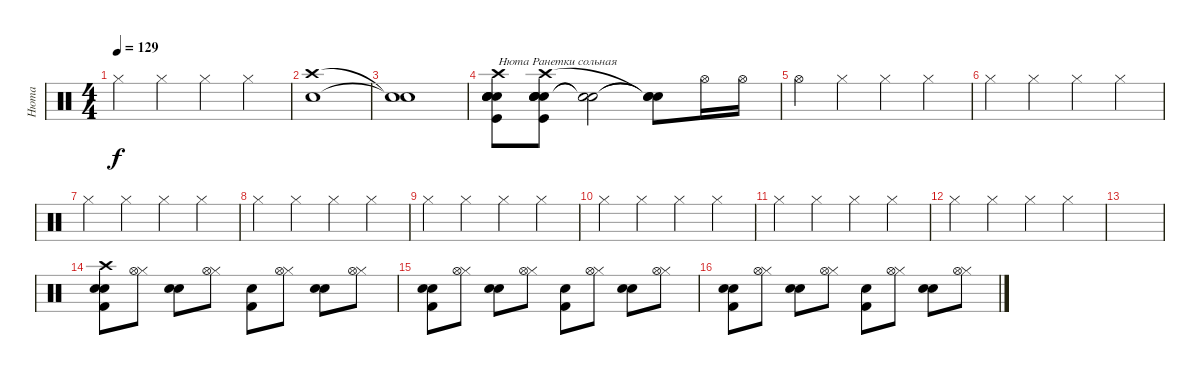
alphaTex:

\track ("Нюта" "Нюта") {instrument percussion}
\staff {score}
\articulation defaults
\ts (4 4)
\tempo 129
\clef neutral
\ks c "Hi-Hat (closed)".4{dy f} "Hi-Hat (closed)".4 "Hi-Hat (closed)".4 "Hi-Hat (closed)".4
|
("Crash high (hit)" "Electric Snare (hit)").1 |
("Snare (hit)"{t} "Snare (hit)"{t}).1 |
("Snare (hit)" "Snare (hit) 2" "Crash high (hit)" "Kick (hit)" "Snare (hit) 2" "Electric Snare (hit)").8{txt "Нюта Ранетки сольная"} ("Snare (hit)" "Snare (hit) 2" "Crash high (hit)" "Kick (hit)" "Snare (hit) 2" "Electric Snare (hit)").8 ("Snare (hit)"{t} "Snare (hit)"{t}).2 ("Snare (hit)"{t} "Snare (hit)"{t} "Snare (hit)"{t}).8 "Hi-Hat (open)".16 "Hi-Hat (open)".16 |
"Hi-Hat (open)".4 "Hi-Hat (closed)".4 "Hi-Hat (closed)".4 "Hi-Hat (closed)".4 |
"Hi-Hat (closed)".4 "Hi-Hat (closed)".4 "Hi-Hat (closed)".4 "Hi-Hat (closed)".4 |
"Hi-Hat (closed)".4 "Hi-Hat (closed)".4 "Hi-Hat (closed)".4 "Hi-Hat (closed)".4 |
"Hi-Hat (closed)".4 "Hi-Hat (closed)".4 "Hi-Hat (closed)".4 "Hi-Hat (closed)".4 |
"Hi-Hat (closed)".4 "Hi-Hat (closed)".4 "Hi-Hat (closed)".4 "Hi-Hat (closed)".4 |
"Hi-Hat (closed)".4 "Hi-Hat (closed)".4 "Hi-Hat (closed)".4 "Hi-Hat (closed)".4 |
"Hi-Hat (closed)".4 "Hi-Hat (closed)".4 "Hi-Hat (closed)".4 "Hi-Hat (closed)".4 |
"Hi-Hat (closed)".4 "Hi-Hat (closed)".4 "Hi-Hat (closed)".4 "Hi-Hat (closed)".4 |
|
("Snare (hit)" "Kick (hit) 2" "Snare (hit)" "Crash high (hit)").8 ("Hi-Hat (closed)" "Hi-Hat (open)").8 ("Snare (hit)" "Electric Snare (hit)").8 ("Hi-Hat (closed)" "Hi-Hat (open)").8 ("Snare (hit)" "Kick (hit) 2").8 ("Hi-Hat (closed)" "Hi-Hat (open)").8 ("Snare (hit)" "Electric Snare (hit)").8 ("Hi-Hat (closed)" "Hi-Hat (open)").8 |
("Snare (hit)" "Kick (hit) 2" "Snare (hit)").8 ("Hi-Hat (closed)" "Hi-Hat (open)").8 ("Snare (hit)" "Electric Snare (hit)").8 ("Hi-Hat (closed)" "Hi-Hat (open)").8 ("Snare (hit)" "Kick (hit) 2").8 ("Hi-Hat (closed)" "Hi-Hat (open)").8 ("Snare (hit)" "Electric Snare (hit)").8 ("Hi-Hat (closed)" "Hi-Hat (open)").8 |
("Snare (hit)" "Kick (hit) 2" "Snare (hit)").8 ("Hi-Hat (closed)" "Hi-Hat (open)").8 ("Snare (hit)" "Electric Snare (hit)").8 ("Hi-Hat (closed)" "Hi-Hat (open)").8 ("Snare (hit)" "Kick (hit) 2").8 ("Hi-Hat (closed)" "Hi-Hat (open)").8 ("Snare (hit)" "Electric Snare (hit)").8 ("Hi-Hat (closed)" "Hi-Hat (open)").8
